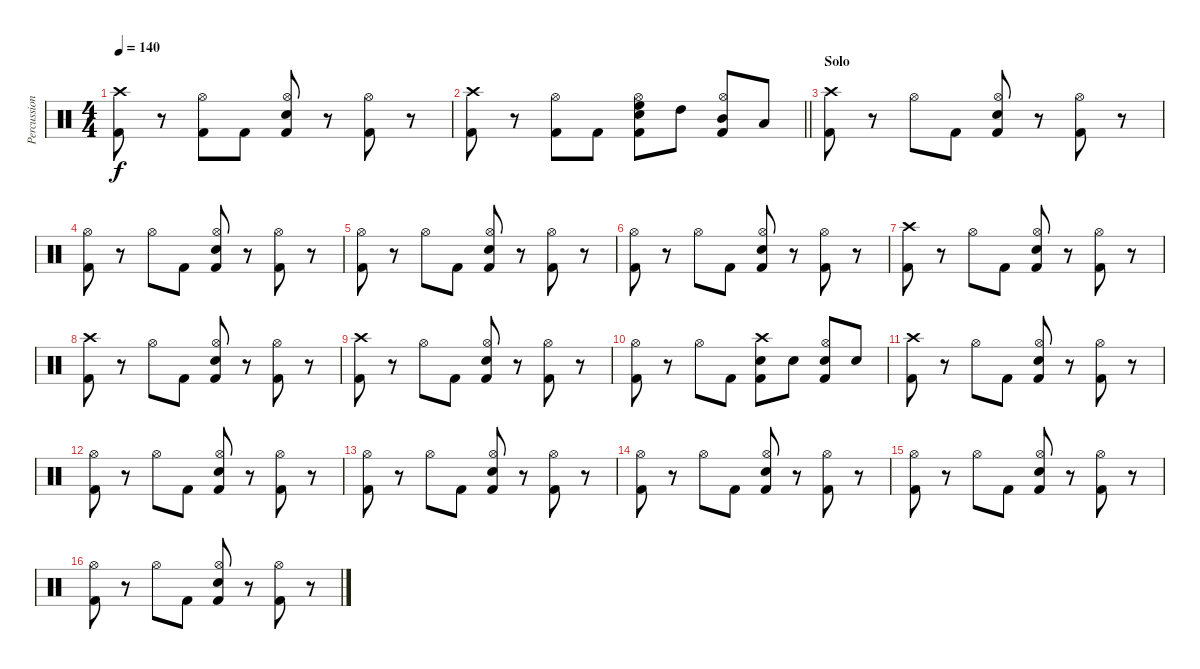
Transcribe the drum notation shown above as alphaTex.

\track ("Percussion" "Percussion") {instrument percussion}
\staff
\articulation defaults
\ts (4 4)
\tempo 140
\clef neutral
\ks c
("Crash high (hit)" "Kick (hit) 2").8{dy f} r.8 ("Hi-Hat (open)" "Kick (hit) 2").8 "Kick (hit) 2".8 ("Hi-Hat (open)" "Snare (hit) 2" "Kick (hit) 2").8 r.8 ("Hi-Hat (open)" "Kick (hit) 2").8 r.8 |
\barLineRight lightlight
("Crash high (hit)" "Kick (hit) 2").8 r.8 ("Hi-Hat (open)" "Kick (hit) 2").8 "Kick (hit) 2".8 ("Hi-Hat (open)" "High Floor Tom (hit)" "Snare (hit) 2" "Kick (hit) 2").8 "High Tom (hit)".8 ("Hi-Hat (open)" "Mid Tom (hit)" "Kick (hit) 2").8 "Low Tom (hit)".8 |
\section ("" "Solo")
("Crash high (hit)" "Kick (hit) 2").8 r.8 "Hi-Hat (open)".8 "Kick (hit) 2".8 ("Hi-Hat (open)" "Snare (hit) 2" "Kick (hit) 2").8 r.8 ("Hi-Hat (open)" "Kick (hit) 2").8 r.8 |
("Hi-Hat (open)" "Kick (hit) 2").8 r.8 "Hi-Hat (open)".8 "Kick (hit) 2".8 ("Hi-Hat (open)" "Snare (hit) 2" "Kick (hit) 2").8 r.8 ("Hi-Hat (open)" "Kick (hit) 2").8 r.8 |
("Hi-Hat (open)" "Kick (hit) 2").8 r.8 "Hi-Hat (open)".8 "Kick (hit) 2".8 ("Hi-Hat (open)" "Snare (hit) 2" "Kick (hit) 2").8 r.8 ("Hi-Hat (open)" "Kick (hit) 2").8 r.8 |
("Hi-Hat (open)" "Kick (hit) 2").8 r.8 "Hi-Hat (open)".8 "Kick (hit) 2".8 ("Hi-Hat (open)" "Snare (hit) 2" "Kick (hit) 2").8 r.8 ("Hi-Hat (open)" "Kick (hit) 2").8 r.8 |
("Crash high (hit)" "Kick (hit) 2").8 r.8 "Hi-Hat (open)".8 "Kick (hit) 2".8 ("Hi-Hat (open)" "Snare (hit) 2" "Kick (hit) 2").8 r.8 ("Hi-Hat (open)" "Kick (hit) 2").8 r.8 |
("Crash high (hit)" "Kick (hit) 2").8 r.8 "Hi-Hat (open)".8 "Kick (hit) 2".8 ("Hi-Hat (open)" "Snare (hit) 2" "Kick (hit) 2").8 r.8 ("Hi-Hat (open)" "Kick (hit) 2").8 r.8 |
("Crash high (hit)" "Kick (hit) 2").8 r.8 "Hi-Hat (open)".8 "Kick (hit) 2".8 ("Hi-Hat (open)" "Snare (hit) 2" "Kick (hit) 2").8 r.8 ("Hi-Hat (open)" "Kick (hit) 2").8 r.8 |
("Hi-Hat (open)" "Kick (hit) 2").8 r.8 "Hi-Hat (open)".8 "Kick (hit) 2".8 ("Crash high (hit)" "Snare (hit) 2" "Kick (hit) 2").8 "Snare (hit) 2".8 ("Hi-Hat (open)" "Snare (hit) 2" "Kick (hit) 2").8 "Snare (hit) 2".8 |
("Crash high (hit)" "Kick (hit) 2").8 r.8 "Hi-Hat (open)".8 "Kick (hit) 2".8 ("Hi-Hat (open)" "Snare (hit) 2" "Kick (hit) 2").8 r.8 ("Hi-Hat (open)" "Kick (hit) 2").8 r.8 |
("Hi-Hat (open)" "Kick (hit) 2").8 r.8 "Hi-Hat (open)".8 "Kick (hit) 2".8 ("Hi-Hat (open)" "Snare (hit) 2" "Kick (hit) 2").8 r.8 ("Hi-Hat (open)" "Kick (hit) 2").8 r.8 |
("Hi-Hat (open)" "Kick (hit) 2").8 r.8 "Hi-Hat (open)".8 "Kick (hit) 2".8 ("Hi-Hat (open)" "Snare (hit) 2" "Kick (hit) 2").8 r.8 ("Hi-Hat (open)" "Kick (hit) 2").8 r.8 |
("Hi-Hat (open)" "Kick (hit) 2").8 r.8 "Hi-Hat (open)".8 "Kick (hit) 2".8 ("Hi-Hat (open)" "Snare (hit) 2" "Kick (hit) 2").8 r.8 ("Hi-Hat (open)" "Kick (hit) 2").8 r.8 |
("Hi-Hat (open)" "Kick (hit) 2").8 r.8 "Hi-Hat (open)".8 "Kick (hit) 2".8 ("Hi-Hat (open)" "Snare (hit) 2" "Kick (hit) 2").8 r.8 ("Hi-Hat (open)" "Kick (hit) 2").8 r.8 |
("Hi-Hat (open)" "Kick (hit) 2").8 r.8 "Hi-Hat (open)".8 "Kick (hit) 2".8 ("Hi-Hat (open)" "Snare (hit) 2" "Kick (hit) 2").8 r.8 ("Hi-Hat (open)" "Kick (hit) 2").8 r.8
